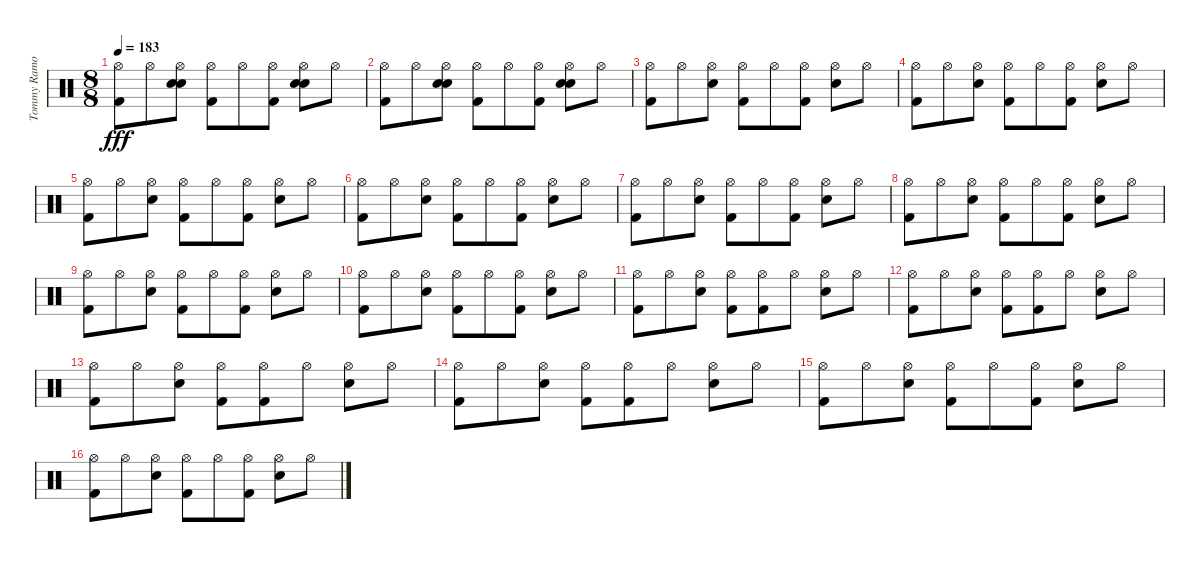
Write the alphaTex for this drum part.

\track ("Tommy Ramone - Drums" "Tommy Ramo") {instrument percussion}
\staff {score}
\articulation defaults
\ts (8 8)
\tempo 183
\clef neutral
\ks c
("Kick (hit) 2" "Hi-Hat (open)").8{dy fff} "Hi-Hat (open)".8 ("Hand Clap (hit)" "Snare (hit) 2" "Hi-Hat (open)").8 ("Kick (hit) 2" "Hi-Hat (open)").8 "Hi-Hat (open)".8 ("Kick (hit) 2" "Hi-Hat (open)").8 ("Hand Clap (hit)" "Snare (hit) 2" "Hi-Hat (open)").8 "Hi-Hat (open)".8 |
("Kick (hit) 2" "Hi-Hat (open)").8 "Hi-Hat (open)".8 ("Hand Clap (hit)" "Snare (hit) 2" "Hi-Hat (open)").8 ("Kick (hit) 2" "Hi-Hat (open)").8 "Hi-Hat (open)".8 ("Kick (hit) 2" "Hi-Hat (open)").8 ("Hand Clap (hit)" "Snare (hit) 2" "Hi-Hat (open)").8 "Hi-Hat (open)".8 |
("Kick (hit) 2" "Hi-Hat (open)").8 "Hi-Hat (open)".8 ("Snare (hit) 2" "Hi-Hat (open)").8 ("Kick (hit) 2" "Hi-Hat (open)").8 "Hi-Hat (open)".8 ("Kick (hit) 2" "Hi-Hat (open)").8 ("Snare (hit) 2" "Hi-Hat (open)").8 "Hi-Hat (open)".8 |
("Kick (hit) 2" "Hi-Hat (open)").8 "Hi-Hat (open)".8 ("Snare (hit) 2" "Hi-Hat (open)").8 ("Kick (hit) 2" "Hi-Hat (open)").8 "Hi-Hat (open)".8 ("Kick (hit) 2" "Hi-Hat (open)").8 ("Snare (hit) 2" "Hi-Hat (open)").8 "Hi-Hat (open)".8 |
("Kick (hit) 2" "Hi-Hat (open)").8 "Hi-Hat (open)".8 ("Snare (hit) 2" "Hi-Hat (open)").8 ("Kick (hit) 2" "Hi-Hat (open)").8 "Hi-Hat (open)".8 ("Kick (hit) 2" "Hi-Hat (open)").8 ("Snare (hit) 2" "Hi-Hat (open)").8 "Hi-Hat (open)".8 |
("Kick (hit) 2" "Hi-Hat (open)").8 "Hi-Hat (open)".8 ("Snare (hit) 2" "Hi-Hat (open)").8 ("Kick (hit) 2" "Hi-Hat (open)").8 "Hi-Hat (open)".8 ("Kick (hit) 2" "Hi-Hat (open)").8 ("Snare (hit) 2" "Hi-Hat (open)").8 "Hi-Hat (open)".8 |
("Kick (hit) 2" "Hi-Hat (open)").8 "Hi-Hat (open)".8 ("Snare (hit) 2" "Hi-Hat (open)").8 ("Kick (hit) 2" "Hi-Hat (open)").8 "Hi-Hat (open)".8 ("Kick (hit) 2" "Hi-Hat (open)").8 ("Snare (hit) 2" "Hi-Hat (open)").8 "Hi-Hat (open)".8 |
("Kick (hit) 2" "Hi-Hat (open)").8 "Hi-Hat (open)".8 ("Snare (hit) 2" "Hi-Hat (open)").8 ("Kick (hit) 2" "Hi-Hat (open)").8 "Hi-Hat (open)".8 ("Kick (hit) 2" "Hi-Hat (open)").8 ("Snare (hit) 2" "Hi-Hat (open)").8 "Hi-Hat (open)".8 |
("Kick (hit) 2" "Hi-Hat (open)").8 "Hi-Hat (open)".8 ("Snare (hit) 2" "Hi-Hat (open)").8 ("Kick (hit) 2" "Hi-Hat (open)").8 "Hi-Hat (open)".8 ("Kick (hit) 2" "Hi-Hat (open)").8 ("Snare (hit) 2" "Hi-Hat (open)").8 "Hi-Hat (open)".8 |
("Kick (hit) 2" "Hi-Hat (open)").8 "Hi-Hat (open)".8 ("Snare (hit) 2" "Hi-Hat (open)").8 ("Kick (hit) 2" "Hi-Hat (open)").8 "Hi-Hat (open)".8 ("Kick (hit) 2" "Hi-Hat (open)").8 ("Snare (hit) 2" "Hi-Hat (open)").8 "Hi-Hat (open)".8 |
("Kick (hit) 2" "Hi-Hat (open)").8 "Hi-Hat (open)".8 ("Snare (hit) 2" "Hi-Hat (open)").8 ("Kick (hit) 2" "Hi-Hat (open)").8 ("Kick (hit) 2" "Hi-Hat (open)").8 "Hi-Hat (open)".8 ("Snare (hit) 2" "Hi-Hat (open)").8 "Hi-Hat (open)".8 |
("Kick (hit) 2" "Hi-Hat (open)").8 "Hi-Hat (open)".8 ("Snare (hit) 2" "Hi-Hat (open)").8 ("Kick (hit) 2" "Hi-Hat (open)").8 ("Kick (hit) 2" "Hi-Hat (open)").8 "Hi-Hat (open)".8 ("Snare (hit) 2" "Hi-Hat (open)").8 "Hi-Hat (open)".8 |
("Kick (hit) 2" "Hi-Hat (open)").8 "Hi-Hat (open)".8 ("Snare (hit) 2" "Hi-Hat (open)").8 ("Kick (hit) 2" "Hi-Hat (open)").8 ("Kick (hit) 2" "Hi-Hat (open)").8 "Hi-Hat (open)".8 ("Snare (hit) 2" "Hi-Hat (open)").8 "Hi-Hat (open)".8 |
("Kick (hit) 2" "Hi-Hat (open)").8 "Hi-Hat (open)".8 ("Snare (hit) 2" "Hi-Hat (open)").8 ("Kick (hit) 2" "Hi-Hat (open)").8 ("Kick (hit) 2" "Hi-Hat (open)").8 "Hi-Hat (open)".8 ("Snare (hit) 2" "Hi-Hat (open)").8 "Hi-Hat (open)".8 |
("Kick (hit) 2" "Hi-Hat (open)").8 "Hi-Hat (open)".8 ("Snare (hit) 2" "Hi-Hat (open)").8 ("Kick (hit) 2" "Hi-Hat (open)").8 "Hi-Hat (open)".8 ("Kick (hit) 2" "Hi-Hat (open)").8 ("Snare (hit) 2" "Hi-Hat (open)").8 "Hi-Hat (open)".8 |
("Kick (hit) 2" "Hi-Hat (open)").8 "Hi-Hat (open)".8 ("Snare (hit) 2" "Hi-Hat (open)").8 ("Kick (hit) 2" "Hi-Hat (open)").8 "Hi-Hat (open)".8 ("Kick (hit) 2" "Hi-Hat (open)").8 ("Snare (hit) 2" "Hi-Hat (open)").8 "Hi-Hat (open)".8
